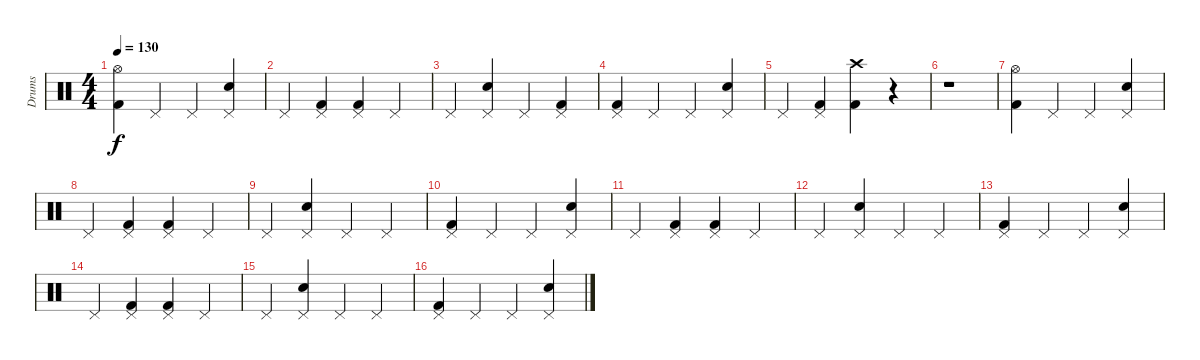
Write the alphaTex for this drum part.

\track ("Drums" "Drums") {instrument percussion}
\staff {score}
\articulation defaults
\ts (4 4)
\tempo 130
\clef neutral
\ks c
("Hi-Hat (open)" "Kick (hit) 2").4{dy f} "Pedal Hi-Hat (hit)".4 "Pedal Hi-Hat (hit)".4 ("Pedal Hi-Hat (hit)" "Snare (hit) 2").4 |
"Pedal Hi-Hat (hit)".4 ("Pedal Hi-Hat (hit)" "Kick (hit) 2").4 ("Pedal Hi-Hat (hit)" "Kick (hit) 2").4 "Pedal Hi-Hat (hit)".4 |
"Pedal Hi-Hat (hit)".4 ("Pedal Hi-Hat (hit)" "Snare (hit) 2").4 "Pedal Hi-Hat (hit)".4 ("Pedal Hi-Hat (hit)" "Kick (hit) 2").4 |
("Pedal Hi-Hat (hit)" "Kick (hit) 2").4 "Pedal Hi-Hat (hit)".4 "Pedal Hi-Hat (hit)".4 ("Pedal Hi-Hat (hit)" "Snare (hit) 2").4 |
"Pedal Hi-Hat (hit)".4 ("Pedal Hi-Hat (hit)" "Kick (hit) 2").4 ("Crash high (hit)" "Kick (hit) 2").4 r.4 |
r.1 |
("Hi-Hat (open)" "Kick (hit) 2").4 "Pedal Hi-Hat (hit)".4 "Pedal Hi-Hat (hit)".4 ("Pedal Hi-Hat (hit)" "Snare (hit) 2").4 |
"Pedal Hi-Hat (hit)".4 ("Pedal Hi-Hat (hit)" "Kick (hit) 2").4 ("Pedal Hi-Hat (hit)" "Kick (hit) 2").4 "Pedal Hi-Hat (hit)".4 |
"Pedal Hi-Hat (hit)".4 ("Pedal Hi-Hat (hit)" "Snare (hit) 2").4 "Pedal Hi-Hat (hit)".4 "Pedal Hi-Hat (hit)".4 |
("Pedal Hi-Hat (hit)" "Kick (hit) 2").4 "Pedal Hi-Hat (hit)".4 "Pedal Hi-Hat (hit)".4 ("Pedal Hi-Hat (hit)" "Snare (hit) 2").4 |
"Pedal Hi-Hat (hit)".4 ("Pedal Hi-Hat (hit)" "Kick (hit) 2").4 ("Pedal Hi-Hat (hit)" "Kick (hit) 2").4 "Pedal Hi-Hat (hit)".4 |
"Pedal Hi-Hat (hit)".4 ("Pedal Hi-Hat (hit)" "Snare (hit) 2").4 "Pedal Hi-Hat (hit)".4 "Pedal Hi-Hat (hit)".4 |
("Pedal Hi-Hat (hit)" "Kick (hit) 2").4 "Pedal Hi-Hat (hit)".4 "Pedal Hi-Hat (hit)".4 ("Pedal Hi-Hat (hit)" "Snare (hit) 2").4 |
"Pedal Hi-Hat (hit)".4 ("Pedal Hi-Hat (hit)" "Kick (hit) 2").4 ("Pedal Hi-Hat (hit)" "Kick (hit) 2").4 "Pedal Hi-Hat (hit)".4 |
"Pedal Hi-Hat (hit)".4 ("Pedal Hi-Hat (hit)" "Snare (hit) 2").4 "Pedal Hi-Hat (hit)".4 "Pedal Hi-Hat (hit)".4 |
("Pedal Hi-Hat (hit)" "Kick (hit) 2").4 "Pedal Hi-Hat (hit)".4 "Pedal Hi-Hat (hit)".4 ("Pedal Hi-Hat (hit)" "Snare (hit) 2").4
